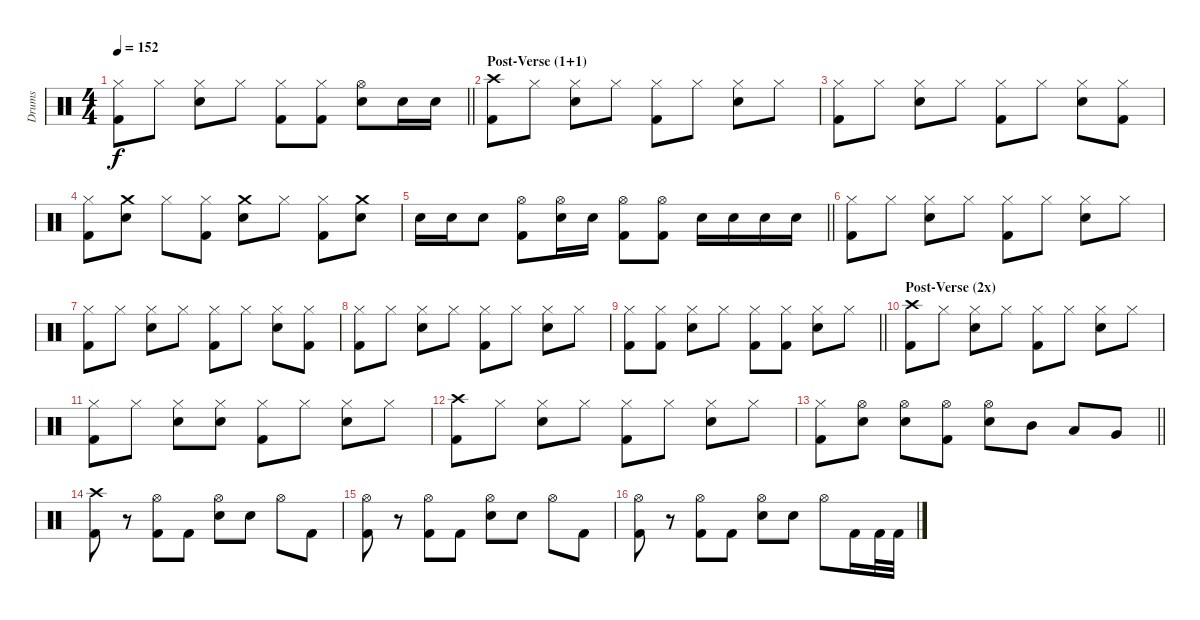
\track ("Drums" "Drums") {instrument percussion}
\staff
\articulation defaults
\ts (4 4)
\tempo 152
\clef neutral
\barLineRight lightlight
\ks c
("Hi-Hat (closed)" "Kick (hit) 2").8{dy f} "Hi-Hat (closed)".8 ("Hi-Hat (closed)" "Electric Snare (hit)").8 "Hi-Hat (closed)".8 ("Hi-Hat (closed)" "Kick (hit) 2").8 ("Hi-Hat (closed)" "Kick (hit) 2").8 ("Hi-Hat (open)" "Electric Snare (hit)").8 "Electric Snare (hit)".16 "Electric Snare (hit)".16 |
\section ("" "Post-Verse (1+1)")
("Crash high (hit)" "Kick (hit) 2").8 "Hi-Hat (closed)".8 ("Hi-Hat (closed)" "Electric Snare (hit)").8 "Hi-Hat (closed)".8 ("Hi-Hat (closed)" "Kick (hit) 2").8 "Hi-Hat (closed)".8 ("Hi-Hat (closed)" "Electric Snare (hit)").8 "Hi-Hat (closed)".8 |
("Hi-Hat (closed)" "Kick (hit) 2").8 "Hi-Hat (closed)".8 ("Hi-Hat (closed)" "Electric Snare (hit)").8 "Hi-Hat (closed)".8 ("Hi-Hat (closed)" "Kick (hit) 2").8 "Hi-Hat (closed)".8 ("Hi-Hat (closed)" "Electric Snare (hit)").8 ("Hi-Hat (closed)" "Kick (hit) 2").8 |
("Hi-Hat (closed)" "Kick (hit) 2").8 ("Crash medium (hit)" "Electric Snare (hit)").8 "Hi-Hat (closed)".8 ("Hi-Hat (closed)" "Kick (hit) 2").8 ("Crash medium (hit)" "Electric Snare (hit)").8 "Hi-Hat (closed)".8 ("Hi-Hat (closed)" "Kick (hit) 2").8 ("Crash medium (hit)" "Electric Snare (hit)").8 |
\barLineRight lightlight "Electric Snare (hit)".16 "Electric Snare (hit)".16 "Electric Snare (hit)".8
("Hi-Hat (open)" "Kick (hit) 2").8 ("Hi-Hat (open)" "Electric Snare (hit)").16 "Electric Snare (hit)".16 ("Hi-Hat (open)" "Kick (hit) 2").8 ("Hi-Hat (open)" "Kick (hit) 2").8 "Electric Snare (hit)".16 "Electric Snare (hit)".16 "Electric Snare (hit)".16 "Electric Snare (hit)".16 |
("Hi-Hat (closed)" "Kick (hit) 2").8 "Hi-Hat (closed)".8 ("Hi-Hat (closed)" "Electric Snare (hit)").8 "Hi-Hat (closed)".8 ("Hi-Hat (closed)" "Kick (hit) 2").8 "Hi-Hat (closed)".8 ("Hi-Hat (closed)" "Electric Snare (hit)").8 "Hi-Hat (closed)".8 |
("Hi-Hat (closed)" "Kick (hit) 2").8 "Hi-Hat (closed)".8 ("Hi-Hat (closed)" "Electric Snare (hit)").8 "Hi-Hat (closed)".8 ("Hi-Hat (closed)" "Kick (hit) 2").8 "Hi-Hat (closed)".8 ("Hi-Hat (closed)" "Electric Snare (hit)").8 ("Hi-Hat (closed)" "Kick (hit) 2").8 |
("Hi-Hat (closed)" "Kick (hit) 2").8 "Hi-Hat (closed)".8 ("Hi-Hat (closed)" "Electric Snare (hit)").8 "Hi-Hat (closed)".8 ("Hi-Hat (closed)" "Kick (hit) 2").8 "Hi-Hat (closed)".8 ("Hi-Hat (closed)" "Electric Snare (hit)").8 "Hi-Hat (closed)".8 |
\barLineRight lightlight
("Hi-Hat (closed)" "Kick (hit) 2").8 ("Hi-Hat (closed)" "Kick (hit) 2").8 ("Hi-Hat (closed)" "Electric Snare (hit)").8 "Hi-Hat (closed)".8 ("Hi-Hat (closed)" "Kick (hit) 2").8 ("Hi-Hat (closed)" "Kick (hit) 2").8 ("Hi-Hat (closed)" "Electric Snare (hit)").8 "Hi-Hat (closed)".8 |
\section ("" "Post-Verse (2x)")
("Crash high (hit)" "Kick (hit) 2").8 "Hi-Hat (closed)".8 ("Hi-Hat (closed)" "Electric Snare (hit)").8 "Hi-Hat (closed)".8 ("Hi-Hat (closed)" "Kick (hit) 2").8 "Hi-Hat (closed)".8 ("Hi-Hat (closed)" "Electric Snare (hit)").8 "Hi-Hat (closed)".8 |
("Hi-Hat (closed)" "Kick (hit) 2").8 "Hi-Hat (closed)".8 ("Hi-Hat (closed)" "Electric Snare (hit)").8 ("Hi-Hat (closed)" "Electric Snare (hit)").8 ("Hi-Hat (closed)" "Kick (hit) 2").8 "Hi-Hat (closed)".8 ("Hi-Hat (closed)" "Electric Snare (hit)").8 "Hi-Hat (closed)".8 |
("Crash high (hit)" "Kick (hit) 2").8 "Hi-Hat (closed)".8 ("Hi-Hat (closed)" "Electric Snare (hit)").8 "Hi-Hat (closed)".8 ("Hi-Hat (closed)" "Kick (hit) 2").8 "Hi-Hat (closed)".8 ("Hi-Hat (closed)" "Electric Snare (hit)").8 "Hi-Hat (closed)".8 |
\barLineRight lightlight
("Hi-Hat (closed)" "Kick (hit) 2").8 ("Hi-Hat (open)" "Electric Snare (hit)").8 ("Hi-Hat (open)" "Electric Snare (hit)").8 ("Hi-Hat (open)" "Kick (hit) 2").8 ("Hi-Hat (open)" "Electric Snare (hit)").8 "Mid Tom (hit)".8 "Low Tom (hit)".8 "Very Low Tom (hit)".8 |
("Crash high (hit)" "Kick (hit) 2").8 r.8 ("Hi-Hat (open)" "Kick (hit) 2").8 "Kick (hit) 2".8 ("Hi-Hat (open)" "Electric Snare (hit)").8 "Electric Snare (hit)".8 "Hi-Hat (open)".8 "Kick (hit) 2".8 |
("Hi-Hat (open)" "Kick (hit) 2").8 r.8 ("Hi-Hat (open)" "Kick (hit) 2").8 "Kick (hit) 2".8 ("Hi-Hat (open)" "Electric Snare (hit)").8 "Electric Snare (hit)".8 "Hi-Hat (open)".8 "Kick (hit) 2".8 |
("Hi-Hat (open)" "Kick (hit) 2").8 r.8 ("Hi-Hat (open)" "Kick (hit) 2").8 "Kick (hit) 2".8 ("Hi-Hat (open)" "Electric Snare (hit)").8 "Electric Snare (hit)".8 "Hi-Hat (open)".8 "Kick (hit) 2".16 "Kick (hit) 2".32 "Kick (hit) 2".32
